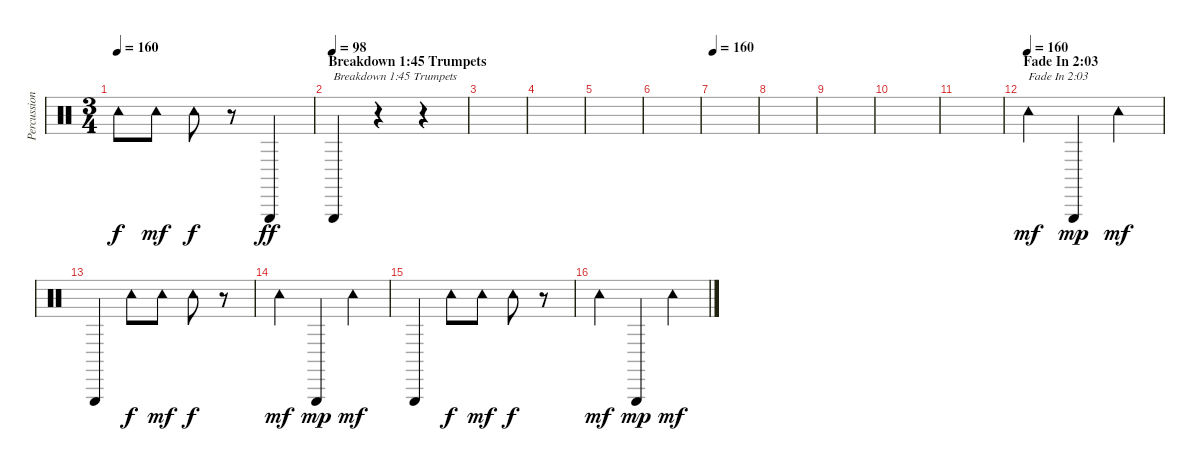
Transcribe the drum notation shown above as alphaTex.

\track ("Percussion" "Percussion") {instrument percussion}
\staff {score}
\articulation defaults
\ts (3 4)
\tempo 160
\clef neutral
\ks c "Tambourine (hit)".8{dy f} "Tambourine (hit)".8{dy mf} "Tambourine (hit)".8{dy f}
r.8 "Triangle (hit)".4{dy ff} |
\section ("" "Breakdown 1:45 Trumpets")
\tempo (98)
"Triangle (hit)".4{txt "Breakdown 1:45 Trumpets"} r.4 r.4 |
|
|
|
|
\tempo 160
|
|
|
|
|
\section ("" "Fade In 2:03")
\tempo (160)
"Tambourine (hit)".4{txt "Fade In 2:03" dy mf volume 8} "Triangle (hit)".4{dy mp} "Tambourine (hit)".4{dy mf} |
"Triangle (hit)".4 "Tambourine (hit)".8{dy f} "Tambourine (hit)".8{dy mf} "Tambourine (hit)".8{dy f} r.8 |
"Tambourine (hit)".4{dy mf} "Triangle (hit)".4{dy mp} "Tambourine (hit)".4{dy mf} |
"Triangle (hit)".4 "Tambourine (hit)".8{dy f} "Tambourine (hit)".8{dy mf} "Tambourine (hit)".8{dy f} r.8 |
"Tambourine (hit)".4{dy mf} "Triangle (hit)".4{dy mp} "Tambourine (hit)".4{dy mf}
